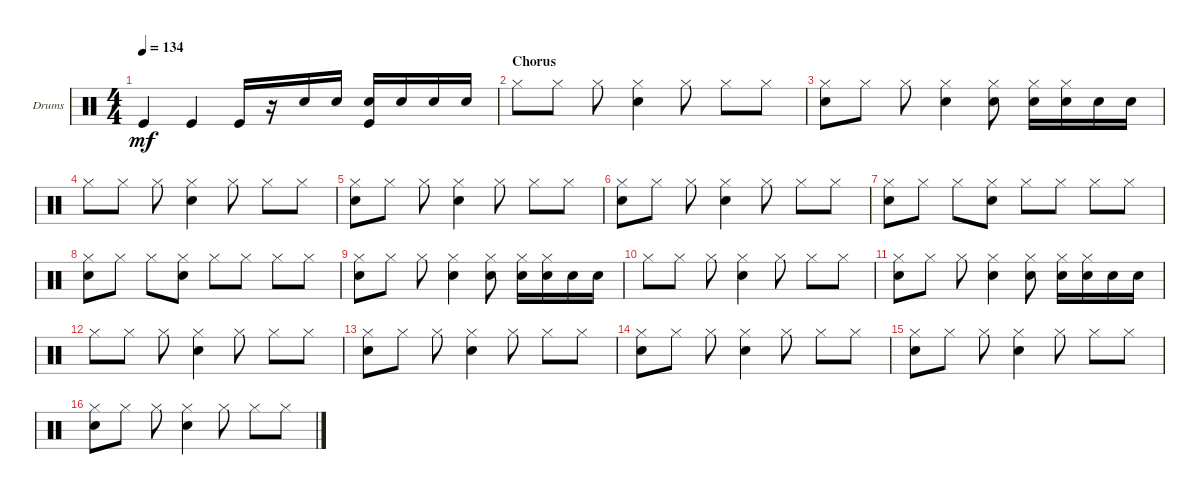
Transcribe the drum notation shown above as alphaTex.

\defaultSystemsLayout 4
\bracketExtendMode groupsimilarinstruments
\firstSystemTrackNameOrientation horizontal
\otherSystemsTrackNameOrientation horizontal
\track ("Drumkit" "Drums") {instrument percussion}
\staff {score}
\articulation defaults
\ts (4 4)
\tempo 134
\clef neutral
\ks c "Kick (hit)".4{dy mf} "Kick (hit)".4 "Kick (hit)".16
r.16 "Snare (hit) 2".16 "Snare (hit) 2".16 ("Snare (hit) 2" "Kick (hit)").16 "Snare (hit) 2".16 "Snare (hit) 2".16 "Snare (hit) 2".16 |
\section ("" "Chorus")
"Hi-Hat (closed)".8 "Hi-Hat (closed)".8 "Hi-Hat (closed)".8 ("Hi-Hat (closed)" "Snare (hit) 2").4 "Hi-Hat (closed)".8 "Hi-Hat (closed)".8 "Hi-Hat (closed)".8 |
("Hi-Hat (closed)" "Snare (hit) 2").8 "Hi-Hat (closed)".8 "Hi-Hat (closed)".8 ("Hi-Hat (closed)" "Snare (hit) 2").4 ("Hi-Hat (closed)" "Snare (hit) 2").8 ("Hi-Hat (closed)" "Snare (hit) 2").16 ("Hi-Hat (closed)" "Snare (hit) 2").16 "Snare (hit) 2".16 "Snare (hit) 2".16 |
"Hi-Hat (closed)".8 "Hi-Hat (closed)".8 "Hi-Hat (closed)".8 ("Hi-Hat (closed)" "Snare (hit) 2").4 "Hi-Hat (closed)".8 "Hi-Hat (closed)".8 "Hi-Hat (closed)".8 |
("Hi-Hat (closed)" "Snare (hit) 2").8 "Hi-Hat (closed)".8 "Hi-Hat (closed)".8 ("Hi-Hat (closed)" "Snare (hit) 2").4 "Hi-Hat (closed)".8 "Hi-Hat (closed)".8 "Hi-Hat (closed)".8 |
("Hi-Hat (closed)" "Snare (hit) 2").8 "Hi-Hat (closed)".8 "Hi-Hat (closed)".8 ("Hi-Hat (closed)" "Snare (hit) 2").4 "Hi-Hat (closed)".8 "Hi-Hat (closed)".8 "Hi-Hat (closed)".8 |
("Hi-Hat (closed)" "Snare (hit) 2").8 "Hi-Hat (closed)".8 "Hi-Hat (closed)".8 ("Hi-Hat (closed)" "Snare (hit) 2").8 "Hi-Hat (closed)".8 "Hi-Hat (closed)".8 "Hi-Hat (closed)".8 "Hi-Hat (closed)".8 |
("Hi-Hat (closed)" "Snare (hit) 2").8 "Hi-Hat (closed)".8 "Hi-Hat (closed)".8 ("Hi-Hat (closed)" "Snare (hit) 2").8 "Hi-Hat (closed)".8 "Hi-Hat (closed)".8 "Hi-Hat (closed)".8 "Hi-Hat (closed)".8 |
("Hi-Hat (closed)" "Snare (hit) 2").8 "Hi-Hat (closed)".8 "Hi-Hat (closed)".8 ("Hi-Hat (closed)" "Snare (hit) 2").4 ("Hi-Hat (closed)" "Snare (hit) 2").8 ("Hi-Hat (closed)" "Snare (hit) 2").16 ("Hi-Hat (closed)" "Snare (hit) 2").16 "Snare (hit) 2".16 "Snare (hit) 2".16 |
"Hi-Hat (closed)".8 "Hi-Hat (closed)".8 "Hi-Hat (closed)".8 ("Hi-Hat (closed)" "Snare (hit) 2").4 "Hi-Hat (closed)".8 "Hi-Hat (closed)".8 "Hi-Hat (closed)".8 |
("Hi-Hat (closed)" "Snare (hit) 2").8 "Hi-Hat (closed)".8 "Hi-Hat (closed)".8 ("Hi-Hat (closed)" "Snare (hit) 2").4 ("Hi-Hat (closed)" "Snare (hit) 2").8 ("Hi-Hat (closed)" "Snare (hit) 2").16 ("Hi-Hat (closed)" "Snare (hit) 2").16 "Snare (hit) 2".16 "Snare (hit) 2".16 |
"Hi-Hat (closed)".8 "Hi-Hat (closed)".8 "Hi-Hat (closed)".8 ("Hi-Hat (closed)" "Snare (hit) 2").4 "Hi-Hat (closed)".8 "Hi-Hat (closed)".8 "Hi-Hat (closed)".8 |
("Hi-Hat (closed)" "Snare (hit) 2").8 "Hi-Hat (closed)".8 "Hi-Hat (closed)".8 ("Hi-Hat (closed)" "Snare (hit) 2").4 "Hi-Hat (closed)".8 "Hi-Hat (closed)".8 "Hi-Hat (closed)".8 |
("Hi-Hat (closed)" "Snare (hit) 2").8 "Hi-Hat (closed)".8 "Hi-Hat (closed)".8 ("Hi-Hat (closed)" "Snare (hit) 2").4 "Hi-Hat (closed)".8 "Hi-Hat (closed)".8 "Hi-Hat (closed)".8 |
("Hi-Hat (closed)" "Snare (hit) 2").8 "Hi-Hat (closed)".8 "Hi-Hat (closed)".8 ("Hi-Hat (closed)" "Snare (hit) 2").4 "Hi-Hat (closed)".8 "Hi-Hat (closed)".8 "Hi-Hat (closed)".8 |
("Hi-Hat (closed)" "Snare (hit) 2").8 "Hi-Hat (closed)".8 "Hi-Hat (closed)".8 ("Hi-Hat (closed)" "Snare (hit) 2").4 "Hi-Hat (closed)".8 "Hi-Hat (closed)".8 "Hi-Hat (closed)".8
